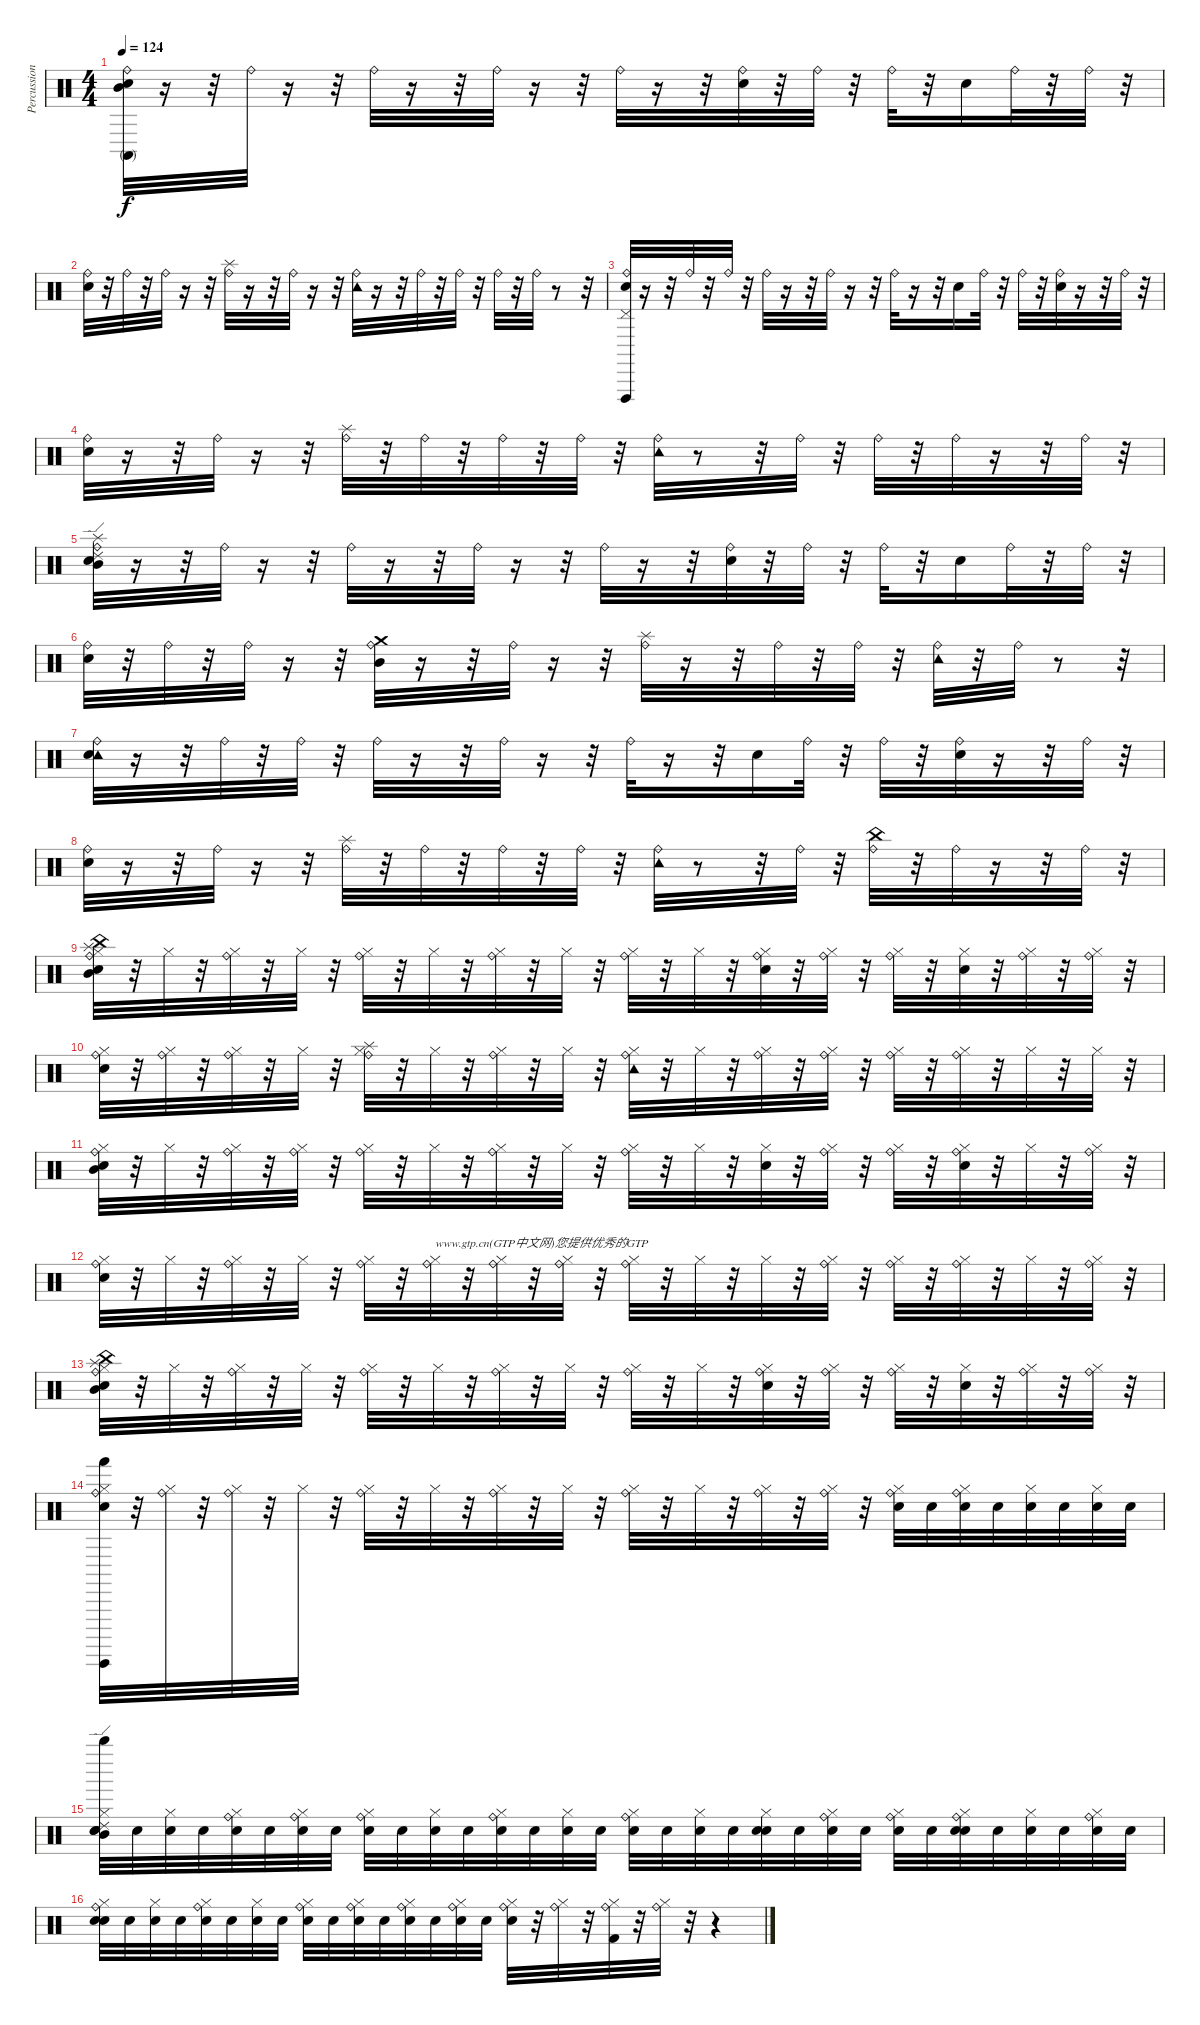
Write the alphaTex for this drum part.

\track ("Percussions" "Percussion") {instrument percussion}
\staff {score}
\articulation defaults
\ts (4 4)
\tempo 124
\clef neutral
\ks c
("Mid Tom (hit)" "Conga high (mute)" "Snare (hit)" "Ride (bell)").32{dy f} r.16 r.32 "Ride (bell)".32 r.16 r.32 "Ride (bell)".32 r.16 r.32 "Ride (bell)".32 r.16 r.32 "Ride (bell)".32 r.16 r.32 ("Snare (hit)" "Ride (bell)").32 r.32 "Ride (bell)".32 r.32 "Ride (bell)".32 r.32 "Snare (hit)".16 "Ride (bell)".32 r.32 "Ride (bell)".32 r.32 |
("Snare (hit)" "Ride (bell)").32 r.32 "Ride (bell)".32 r.32 "Ride (bell)".32 r.16 r.32 ("Splash (hit)" "Ride (bell)").32 r.16 r.32 "Ride (bell)".32 r.16 r.32 ("Tambourine (hit)" "Ride (bell)").32 r.16 r.32 "Ride (bell)".32 r.32 "Ride (bell)".32 r.32 "Ride (bell)".32 r.32 "Ride (bell)".32 r.8 r.32 |
("Pedal Hi-Hat (hit)" "Vibraslap (hit)" "Snare (hit)" "Ride (bell)").32 r.16 r.32 "Ride (bell)".32 r.32 "Ride (bell)".32 r.32 "Ride (bell)".32 r.16 r.32 "Ride (bell)".32 r.16 r.32 "Ride (bell)".32 r.16 r.32 "Snare (hit)".16 "Ride (bell)".32 r.32 "Ride (bell)".32 r.32 ("Snare (hit)" "Ride (bell)").32 r.16 r.32 "Ride (bell)".32 r.32 |
("Snare (hit)" "Ride (bell)").32 r.16 r.32 "Ride (bell)".32 r.16 r.32 ("Splash (hit)" "Ride (bell)").32 r.32 "Ride (bell)".32 r.32 "Ride (bell)".32 r.32 "Ride (bell)".32 r.32 ("Tambourine (hit)" "Ride (bell)").32 r.8 r.32 "Ride (bell)".32 r.32 "Ride (bell)".32 r.32 "Ride (bell)".32 r.16 r.32 "Ride (bell)".32 r.32 |
("Ride (edge) 2" "Mid Tom (hit)" "Snare (hit)" "Splash (hit)" "Ride (bell)").32 r.16 r.32 "Ride (bell)".32 r.16 r.32 "Ride (bell)".32 r.16 r.32 "Ride (bell)".32 r.16 r.32 "Ride (bell)".32 r.16 r.32 ("Snare (hit)" "Ride (bell)").32 r.32 "Ride (bell)".32 r.32 "Ride (bell)".32 r.32 "Snare (hit)".16 "Ride (bell)".32 r.32 "Ride (bell)".32 r.32 |
("Snare (hit)" "Ride (bell)").32 r.32 "Ride (bell)".32 r.32 "Ride (bell)".32 r.16 r.32 ("Crash medium (hit)" "Mid Tom (hit)" "Ride (bell)").32 r.16 r.32 "Ride (bell)".32 r.16 r.32 ("Splash (hit)" "Ride (bell)").32 r.16 r.32 "Ride (bell)".32 r.32 "Ride (bell)".32 r.32 ("Tambourine (hit)" "Ride (bell)").32 r.32 "Ride (bell)".32 r.8 r.32 |
("Tambourine (hit)" "Snare (hit)" "Ride (bell)").32 r.16 r.32 "Ride (bell)".32 r.32 "Ride (bell)".32 r.32 "Ride (bell)".32 r.16 r.32 "Ride (bell)".32 r.16 r.32 "Ride (bell)".32 r.16 r.32 "Snare (hit)".16 "Ride (bell)".32 r.32 "Ride (bell)".32 r.32 ("Snare (hit)" "Ride (bell)").32 r.16 r.32 "Ride (bell)".32 r.32 |
("Snare (hit)" "Ride (bell)").32 r.16 r.32 "Ride (bell)".32 r.16 r.32 ("Splash (hit)" "Ride (bell)").32 r.32 "Ride (bell)".32 r.32 "Ride (bell)".32 r.32 "Ride (bell)".32 r.32 ("Tambourine (hit)" "Ride (bell)").32 r.8 r.32 "Ride (bell)".32 r.32 ("China (hit)" "Ride (bell)").32 r.32 "Ride (bell)".32 r.16 r.32 "Ride (bell)".32 r.32 |
("China (hit)" "Mid Tom (hit)" "Snare (hit)" "Splash (hit)" "Ride (bell)" "Hi-Hat (closed)").32 r.32 "Hi-Hat (closed)".32 r.32 ("Ride (bell)" "Hi-Hat (closed)").32 r.32 "Hi-Hat (closed)".32 r.32 ("Ride (bell)" "Hi-Hat (closed)").32 r.32 "Hi-Hat (closed)".32 r.32 ("Ride (bell)" "Hi-Hat (closed)").32 r.32 "Hi-Hat (closed)".32 r.32 ("Ride (bell)" "Hi-Hat (closed)").32 r.32 "Hi-Hat (closed)".32 r.32 ("Snare (hit)" "Ride (bell)" "Hi-Hat (closed)").32 r.32 ("Ride (bell)" "Hi-Hat (closed)").32 r.32 ("Ride (bell)" "Hi-Hat (closed)").32 r.32 ("Snare (hit)" "Hi-Hat (closed)").32 r.32 ("Ride (bell)" "Hi-Hat (closed)").32 r.32 ("Ride (bell)" "Hi-Hat (closed)").32 r.32 |
("Snare (hit)" "Ride (bell)" "Hi-Hat (closed)").32 r.32 ("Ride (bell)" "Hi-Hat (closed)").32 r.32 ("Ride (bell)" "Hi-Hat (closed)").32 r.32 "Hi-Hat (closed)".32 r.32 ("Splash (hit)" "Ride (bell)" "Hi-Hat (closed)").32 r.32 "Hi-Hat (closed)".32 r.32 ("Ride (bell)" "Hi-Hat (closed)").32 r.32 "Hi-Hat (closed)".32 r.32 ("Tambourine (hit)" "Ride (bell)" "Hi-Hat (closed)").32 r.32 "Hi-Hat (closed)".32 r.32 ("Ride (bell)" "Hi-Hat (closed)").32 r.32 ("Ride (bell)" "Hi-Hat (closed)").32 r.32 ("Ride (bell)" "Hi-Hat (closed)").32 r.32 ("Ride (bell)" "Hi-Hat (closed)").32 r.32 "Hi-Hat (closed)".32 r.32 "Hi-Hat (closed)".32 r.32 |
("Ride (bell)" "Mid Tom (hit)" "Snare (hit)" "Hi-Hat (closed)").32 r.32 "Hi-Hat (closed)".32 r.32 ("Ride (bell)" "Hi-Hat (closed)").32 r.32 ("Ride (bell)" "Hi-Hat (closed)").32 r.32 ("Ride (bell)" "Hi-Hat (closed)").32 r.32 "Hi-Hat (closed)".32 r.32 ("Ride (bell)" "Hi-Hat (closed)").32 r.32 "Hi-Hat (closed)".32 r.32 ("Ride (bell)" "Hi-Hat (closed)").32 r.32 "Hi-Hat (closed)".32 r.32 ("Snare (hit)" "Hi-Hat (closed)").32 r.32 ("Ride (bell)" "Hi-Hat (closed)").32 r.32 ("Ride (bell)" "Hi-Hat (closed)").32 r.32 ("Snare (hit)" "Ride (bell)" "Hi-Hat (closed)").32 r.32 "Hi-Hat (closed)".32 r.32 ("Ride (bell)" "Hi-Hat (closed)").32 r.32 |
("Snare (hit)" "Ride (bell)" "Hi-Hat (closed)").32 r.32 "Hi-Hat (closed)".32 r.32 ("Ride (bell)" "Hi-Hat (closed)").32 r.32 "Hi-Hat (closed)".32 r.32 ("Ride (bell)" "Hi-Hat (closed)").32 r.32 ("Ride (bell)" "Hi-Hat (closed)").32{txt "www.gtp.cn(GTP中文网)您提供优秀的GTP"} r.32 ("Ride (bell)" "Hi-Hat (closed)").32 r.32 ("Ride (bell)" "Hi-Hat (closed)").32 r.32 ("Ride (bell)" "Hi-Hat (closed)").32 r.32 "Hi-Hat (closed)".32 r.32 "Hi-Hat (closed)".32 r.32 ("Ride (bell)" "Hi-Hat (closed)").32 r.32 ("Ride (bell)" "Hi-Hat (closed)").32 r.32 ("Ride (bell)" "Hi-Hat (closed)").32 r.32 "Hi-Hat (closed)".32 r.32 ("Ride (bell)" "Hi-Hat (closed)").32 r.32 |
("China (hit)" "Mid Tom (hit)" "Snare (hit)" "Splash (hit)" "Ride (bell)" "Hi-Hat (closed)").32 r.32 "Hi-Hat (closed)".32 r.32 ("Ride (bell)" "Hi-Hat (closed)").32 r.32 "Hi-Hat (closed)".32 r.32 ("Ride (bell)" "Hi-Hat (closed)").32 r.32 "Hi-Hat (closed)".32 r.32 ("Ride (bell)" "Hi-Hat (closed)").32 r.32 "Hi-Hat (closed)".32 r.32 ("Ride (bell)" "Hi-Hat (closed)").32 r.32 "Hi-Hat (closed)".32 r.32 ("Snare (hit)" "Ride (bell)" "Hi-Hat (closed)").32 r.32 ("Ride (bell)" "Hi-Hat (closed)").32 r.32 ("Ride (bell)" "Hi-Hat (closed)").32 r.32 ("Snare (hit)" "Hi-Hat (closed)").32 r.32 ("Ride (bell)" "Hi-Hat (closed)").32 r.32 ("Ride (bell)" "Hi-Hat (closed)").32 r.32 |
("Guiro (hit)" "Hand (hit)" "Snare (hit)" "Ride (bell)" "Hi-Hat (closed)").32 r.32 ("Ride (bell)" "Hi-Hat (closed)").32 r.32 ("Ride (bell)" "Hi-Hat (closed)").32 r.32 "Hi-Hat (closed)".32 r.32 ("Ride (bell)" "Hi-Hat (closed)").32 r.32 "Hi-Hat (closed)".32 r.32 ("Ride (bell)" "Hi-Hat (closed)").32 r.32 "Hi-Hat (closed)".32 r.32 ("Ride (bell)" "Hi-Hat (closed)").32 r.32 "Hi-Hat (closed)".32 r.32 ("Ride (bell)" "Hi-Hat (closed)").32 r.32 ("Ride (bell)" "Hi-Hat (closed)").32 r.32 ("Electric Snare (hit)" "Ride (bell)" "Hi-Hat (closed)").32 "Electric Snare (hit)".32 ("Electric Snare (hit)" "Ride (bell)" "Hi-Hat (closed)").32 "Electric Snare (hit)".32 ("Electric Snare (hit)" "Hi-Hat (closed)").32 "Electric Snare (hit)".32 ("Electric Snare (hit)" "Hi-Hat (closed)").32 "Electric Snare (hit)".32 |
("Whistle high (hit)" "Mid Tom (hit)" "Ride (edge) 2" "Snare (hit)" "Electric Snare (hit)" "Hi-Hat (closed)").32 "Electric Snare (hit)".32 ("Electric Snare (hit)" "Hi-Hat (closed)").32 "Electric Snare (hit)".32 ("Electric Snare (hit)" "Ride (bell)" "Hi-Hat (closed)").32 "Electric Snare (hit)".32 ("Electric Snare (hit)" "Ride (bell)" "Hi-Hat (closed)").32 "Electric Snare (hit)".32 ("Electric Snare (hit)" "Ride (bell)" "Hi-Hat (closed)").32 "Electric Snare (hit)".32 ("Electric Snare (hit)" "Hi-Hat (closed)").32 "Electric Snare (hit)".32 ("Electric Snare (hit)" "Ride (bell)" "Hi-Hat (closed)").32 "Electric Snare (hit)".32 ("Electric Snare (hit)" "Hi-Hat (closed)").32 "Electric Snare (hit)".32 ("Electric Snare (hit)" "Ride (bell)" "Hi-Hat (closed)").32 "Electric Snare (hit)".32 ("Electric Snare (hit)" "Hi-Hat (closed)").32 "Electric Snare (hit)".32 ("Snare (hit)" "Electric Snare (hit)" "Hi-Hat (closed)").32 "Electric Snare (hit)".32 ("Electric Snare (hit)" "Ride (bell)" "Hi-Hat (closed)").32 "Electric Snare (hit)".32 ("Electric Snare (hit)" "Ride (bell)" "Hi-Hat (closed)").32 "Electric Snare (hit)".32 ("Snare (hit)" "Electric Snare (hit)" "Ride (bell)" "Hi-Hat (closed)").32 "Electric Snare (hit)".32 ("Electric Snare (hit)" "Hi-Hat (closed)").32 "Electric Snare (hit)".32 ("Electric Snare (hit)" "Ride (bell)" "Hi-Hat (closed)").32 "Electric Snare (hit)".32 |
("Snare (hit)" "Electric Snare (hit)" "Ride (bell)" "Hi-Hat (closed)").32 "Electric Snare (hit)".32 ("Electric Snare (hit)" "Hi-Hat (closed)").32 "Electric Snare (hit)".32 ("Electric Snare (hit)" "Ride (bell)" "Hi-Hat (closed)").32 "Electric Snare (hit)".32 ("Electric Snare (hit)" "Hi-Hat (closed)").32 "Electric Snare (hit)".32 ("Electric Snare (hit)" "Ride (bell)" "Hi-Hat (closed)").32 "Electric Snare (hit)".32 ("Electric Snare (hit)" "Ride (bell)" "Hi-Hat (closed)").32 "Electric Snare (hit)".32 ("Electric Snare (hit)" "Ride (bell)" "Hi-Hat (closed)").32 "Electric Snare (hit)".32 ("Electric Snare (hit)" "Ride (bell)" "Hi-Hat (closed)").32 "Electric Snare (hit)".32 ("Electric Snare (hit)" "Ride (bell)" "Hi-Hat (closed)").32 r.32 ("Ride (bell)" "Hi-Hat (closed)").32 r.32 ("Ride (bell)" "Kick (hit) 2" "Hi-Hat (closed)").32 r.32 ("Ride (bell)" "Hi-Hat (closed)").32 r.32 r.4
